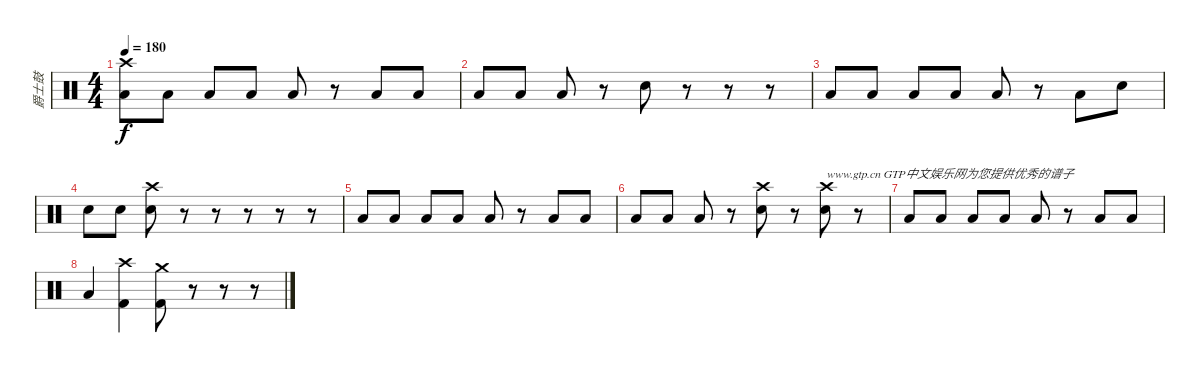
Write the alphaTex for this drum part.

\track ("爵士鼓" "爵士鼓") {instrument percussion}
\staff {score}
\articulation defaults
\ts (4 4)
\tempo 180
\clef neutral
\ks c
("Low Floor Tom (hit)" "Crash high (hit)").8{dy f} "Low Floor Tom (hit)".8 "Low Floor Tom (hit)".8 "Low Floor Tom (hit)".8 "Low Floor Tom (hit)".8 r.8 "Low Floor Tom (hit)".8 "Low Floor Tom (hit)".8 |
"Low Floor Tom (hit)".8 "Low Floor Tom (hit)".8 "Low Floor Tom (hit)".8 r.8 "Snare (hit) 2".8 r.8 r.8 r.8 |
"Low Floor Tom (hit)".8 "Low Floor Tom (hit)".8 "Low Floor Tom (hit)".8 "Low Floor Tom (hit)".8 "Low Floor Tom (hit)".8 r.8 "Low Floor Tom (hit)".8 "Snare (hit) 2".8 |
"Snare (hit) 2".8 "Snare (hit) 2".8 ("Snare (hit) 2" "Crash high (hit)").8 r.8 r.8 r.8 r.8 r.8 |
"Low Floor Tom (hit)".8 "Low Floor Tom (hit)".8 "Low Floor Tom (hit)".8 "Low Floor Tom (hit)".8 "Low Floor Tom (hit)".8 r.8 "Low Floor Tom (hit)".8 "Low Floor Tom (hit)".8 |
"Low Floor Tom (hit)".8 "Low Floor Tom (hit)".8 "Low Floor Tom (hit)".8 r.8 ("Snare (hit) 2" "Crash high (hit)").8 r.8 ("Snare (hit) 2" "Crash high (hit)").8{txt "www.gtp.cn GTP中文娱乐网为您提供优秀的谱子"} r.8 |
"Low Floor Tom (hit)".8 "Low Floor Tom (hit)".8 "Low Floor Tom (hit)".8 "Low Floor Tom (hit)".8 "Low Floor Tom (hit)".8 r.8 "Low Floor Tom (hit)".8 "Low Floor Tom (hit)".8 |
"Low Floor Tom (hit)".4 ("Kick (hit) 2" "Crash high (hit)").4 ("Kick (hit) 2" "Crash medium (hit)").8 r.8 r.8 r.8
